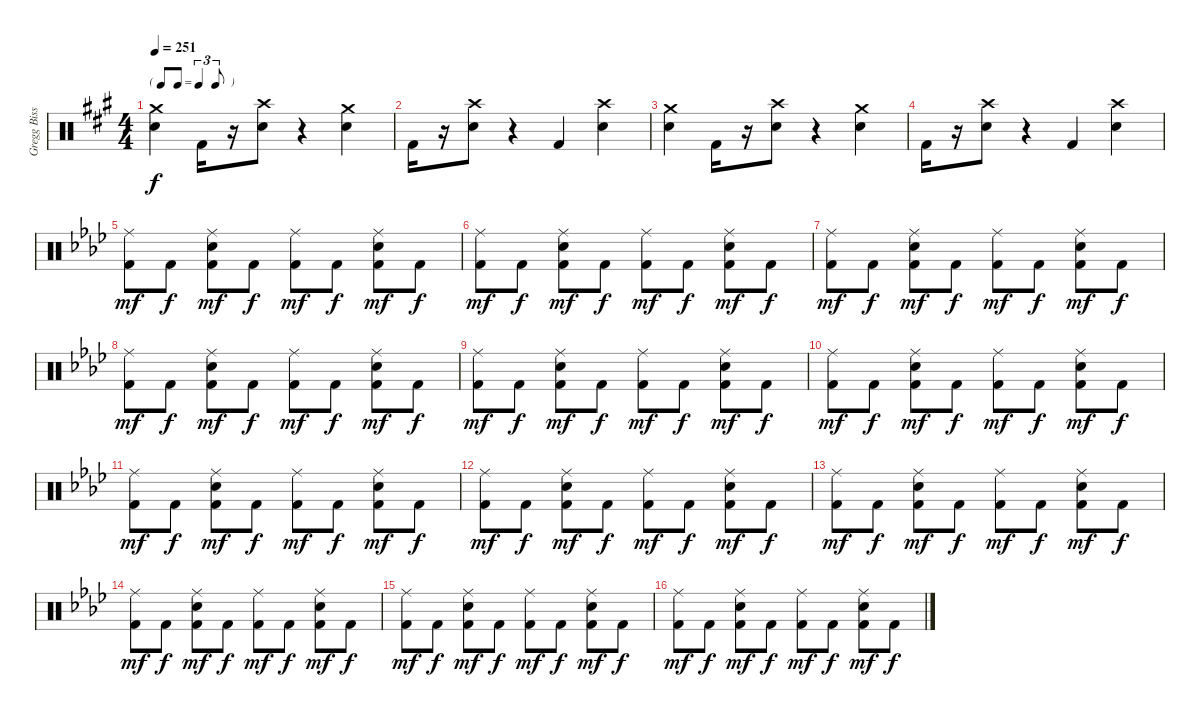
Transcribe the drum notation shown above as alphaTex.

\track ("Gregg Bissonette" "Gregg Biss") {instrument percussion}
\staff {score}
\articulation defaults
\ts (4 4)
\tf triplet8th
\tempo 251
\clef neutral
\ks f#minor
("Crash medium (hit)" "Electric Snare (hit)").4{dy f} "Kick (hit) 2".16 r.16 ("Crash high (hit)" "Electric Snare (hit)").8 r.4 ("Crash medium (hit)" "Electric Snare (hit)").4 |
"Kick (hit) 2".16 r.16 ("Crash high (hit)" "Electric Snare (hit)").8 r.4 "Kick (hit) 2".4 ("Crash high (hit)" "Electric Snare (hit)").4 |
("Crash medium (hit)" "Electric Snare (hit)").4 "Kick (hit) 2".16 r.16 ("Crash high (hit)" "Electric Snare (hit)").8 r.4 ("Crash medium (hit)" "Electric Snare (hit)").4 |
"Kick (hit) 2".16 r.16 ("Crash high (hit)" "Electric Snare (hit)").8 r.4 "Kick (hit) 2".4 ("Crash high (hit)" "Electric Snare (hit)").4 |
\ks fminor
("Ride (middle)" "Kick (hit) 2").8{dy mf} "Kick (hit) 2".8{dy f} ("Ride (middle)" "Electric Snare (hit)" "Kick (hit) 2").8{dy mf} "Kick (hit) 2".8{dy f} ("Ride (middle)" "Kick (hit) 2").8{dy mf} "Kick (hit) 2".8{dy f} ("Ride (middle)" "Electric Snare (hit)" "Kick (hit) 2").8{dy mf} "Kick (hit) 2".8{dy f} |
("Ride (middle)" "Kick (hit) 2").8{dy mf} "Kick (hit) 2".8{dy f} ("Ride (middle)" "Electric Snare (hit)" "Kick (hit) 2").8{dy mf} "Kick (hit) 2".8{dy f} ("Ride (middle)" "Kick (hit) 2").8{dy mf} "Kick (hit) 2".8{dy f} ("Ride (middle)" "Electric Snare (hit)" "Kick (hit) 2").8{dy mf} "Kick (hit) 2".8{dy f} |
("Ride (middle)" "Kick (hit) 2").8{dy mf} "Kick (hit) 2".8{dy f} ("Ride (middle)" "Electric Snare (hit)" "Kick (hit) 2").8{dy mf} "Kick (hit) 2".8{dy f} ("Ride (middle)" "Kick (hit) 2").8{dy mf} "Kick (hit) 2".8{dy f} ("Ride (middle)" "Electric Snare (hit)" "Kick (hit) 2").8{dy mf} "Kick (hit) 2".8{dy f} |
("Ride (middle)" "Kick (hit) 2").8{dy mf} "Kick (hit) 2".8{dy f} ("Ride (middle)" "Electric Snare (hit)" "Kick (hit) 2").8{dy mf} "Kick (hit) 2".8{dy f} ("Ride (middle)" "Kick (hit) 2").8{dy mf} "Kick (hit) 2".8{dy f} ("Ride (middle)" "Electric Snare (hit)" "Kick (hit) 2").8{dy mf} "Kick (hit) 2".8{dy f} |
("Ride (middle)" "Kick (hit) 2").8{dy mf} "Kick (hit) 2".8{dy f} ("Ride (middle)" "Electric Snare (hit)" "Kick (hit) 2").8{dy mf} "Kick (hit) 2".8{dy f} ("Ride (middle)" "Kick (hit) 2").8{dy mf} "Kick (hit) 2".8{dy f} ("Ride (middle)" "Electric Snare (hit)" "Kick (hit) 2").8{dy mf} "Kick (hit) 2".8{dy f} |
("Ride (middle)" "Kick (hit) 2").8{dy mf} "Kick (hit) 2".8{dy f} ("Ride (middle)" "Electric Snare (hit)" "Kick (hit) 2").8{dy mf} "Kick (hit) 2".8{dy f} ("Ride (middle)" "Kick (hit) 2").8{dy mf} "Kick (hit) 2".8{dy f} ("Ride (middle)" "Electric Snare (hit)" "Kick (hit) 2").8{dy mf} "Kick (hit) 2".8{dy f} |
("Ride (middle)" "Kick (hit) 2").8{dy mf} "Kick (hit) 2".8{dy f} ("Ride (middle)" "Electric Snare (hit)" "Kick (hit) 2").8{dy mf} "Kick (hit) 2".8{dy f} ("Ride (middle)" "Kick (hit) 2").8{dy mf} "Kick (hit) 2".8{dy f} ("Ride (middle)" "Electric Snare (hit)" "Kick (hit) 2").8{dy mf} "Kick (hit) 2".8{dy f} |
("Ride (middle)" "Kick (hit) 2").8{dy mf} "Kick (hit) 2".8{dy f} ("Ride (middle)" "Electric Snare (hit)" "Kick (hit) 2").8{dy mf} "Kick (hit) 2".8{dy f} ("Ride (middle)" "Kick (hit) 2").8{dy mf} "Kick (hit) 2".8{dy f} ("Ride (middle)" "Electric Snare (hit)" "Kick (hit) 2").8{dy mf} "Kick (hit) 2".8{dy f} |
("Ride (middle)" "Kick (hit) 2").8{dy mf} "Kick (hit) 2".8{dy f} ("Ride (middle)" "Electric Snare (hit)" "Kick (hit) 2").8{dy mf} "Kick (hit) 2".8{dy f} ("Ride (middle)" "Kick (hit) 2").8{dy mf} "Kick (hit) 2".8{dy f} ("Ride (middle)" "Electric Snare (hit)" "Kick (hit) 2").8{dy mf} "Kick (hit) 2".8{dy f} |
("Ride (middle)" "Kick (hit) 2").8{dy mf} "Kick (hit) 2".8{dy f} ("Ride (middle)" "Electric Snare (hit)" "Kick (hit) 2").8{dy mf} "Kick (hit) 2".8{dy f} ("Ride (middle)" "Kick (hit) 2").8{dy mf} "Kick (hit) 2".8{dy f} ("Ride (middle)" "Electric Snare (hit)" "Kick (hit) 2").8{dy mf} "Kick (hit) 2".8{dy f} |
("Ride (middle)" "Kick (hit) 2").8{dy mf} "Kick (hit) 2".8{dy f} ("Ride (middle)" "Electric Snare (hit)" "Kick (hit) 2").8{dy mf} "Kick (hit) 2".8{dy f} ("Ride (middle)" "Kick (hit) 2").8{dy mf} "Kick (hit) 2".8{dy f} ("Ride (middle)" "Electric Snare (hit)" "Kick (hit) 2").8{dy mf} "Kick (hit) 2".8{dy f} |
("Ride (middle)" "Kick (hit) 2").8{dy mf} "Kick (hit) 2".8{dy f} ("Ride (middle)" "Electric Snare (hit)" "Kick (hit) 2").8{dy mf} "Kick (hit) 2".8{dy f} ("Ride (middle)" "Kick (hit) 2").8{dy mf} "Kick (hit) 2".8{dy f} ("Ride (middle)" "Electric Snare (hit)" "Kick (hit) 2").8{dy mf} "Kick (hit) 2".8{dy f}
